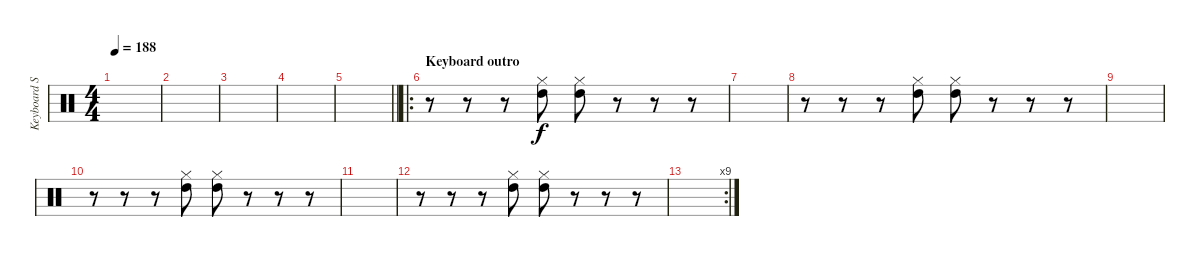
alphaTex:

\track ("Keyboard Samplings" "Keyboard S") {instrument percussion}
\staff {score}
\articulation defaults
\ts (4 4)
\tempo 188
\clef neutral
\ks c
|
|
|
|
\barLineRight lightlight
|
\ro
\section ("" "Keyboard outro")
r.8 r.8 r.8 ("Hi-Hat (closed)" "High Tom (hit)").8 ("Hi-Hat (closed)" "High Tom (hit)").8 r.8 r.8 r.8 |
|
r.8 r.8 r.8 ("Hi-Hat (closed)" "High Tom (hit)").8 ("Hi-Hat (closed)" "High Tom (hit)").8 r.8 r.8 r.8 |
|
r.8 r.8 r.8 ("Hi-Hat (closed)" "High Tom (hit)").8 ("Hi-Hat (closed)" "High Tom (hit)").8 r.8 r.8 r.8 |
|
r.8 r.8 r.8 ("Hi-Hat (closed)" "High Tom (hit)").8 ("Hi-Hat (closed)" "High Tom (hit)").8 r.8 r.8 r.8 |
\rc 9
